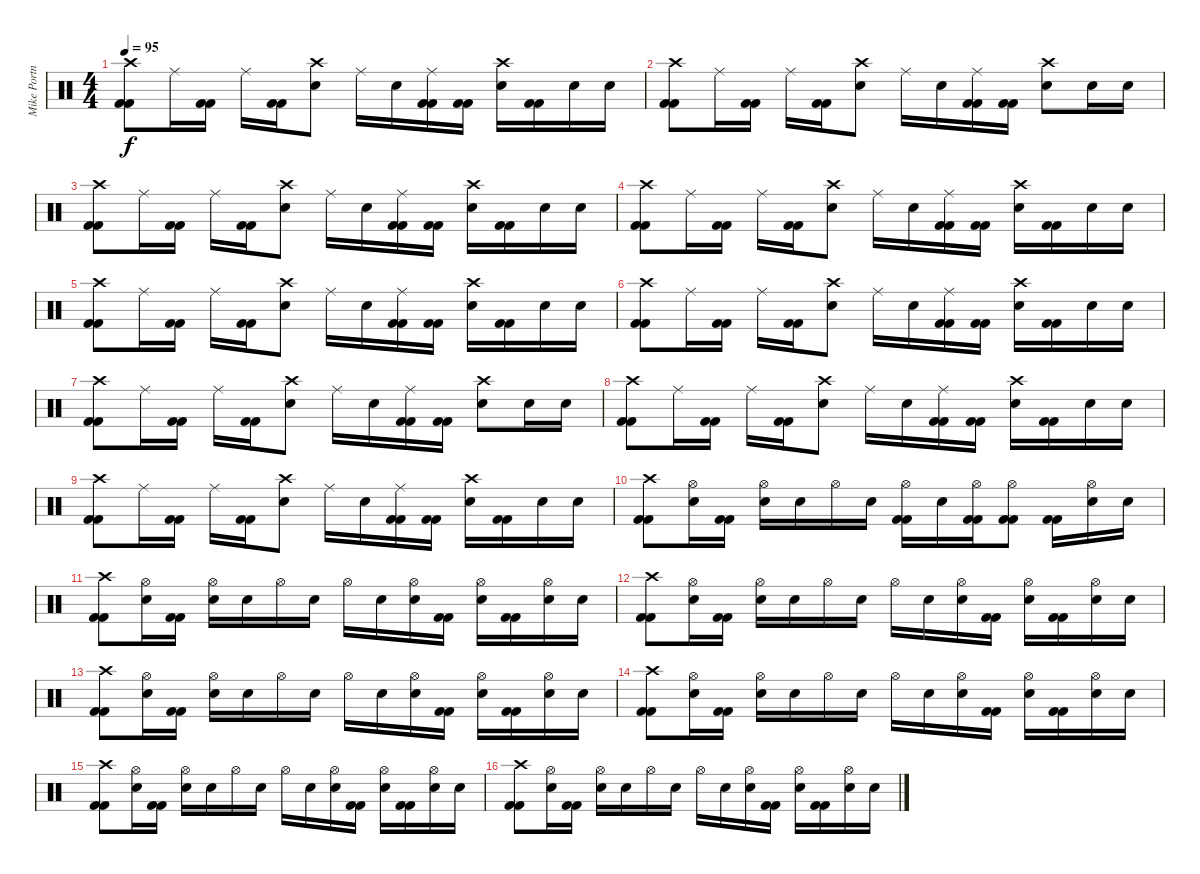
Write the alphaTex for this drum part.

\track ("Mike Portnoy" "Mike Portn") {instrument percussion}
\staff {score}
\articulation defaults
\ts (4 4)
\tempo 95
\clef neutral
\ks c
("Crash high (hit)" "Kick (hit) 2" "Kick (hit) 2").8{dy f} "Ride (middle)".16 ("Kick (hit) 2" "Kick (hit) 2").16 "Ride (middle)".16 ("Kick (hit) 2" "Kick (hit) 2").16 ("Crash high (hit)" "Snare (hit) 2").8 "Ride (middle)".16 "Snare (hit) 2".16 ("Ride (middle)" "Kick (hit) 2" "Kick (hit) 2").16 ("Kick (hit) 2" "Kick (hit) 2").16 ("Crash high (hit)" "Snare (hit) 2").16 ("Kick (hit) 2" "Kick (hit) 2").16 "Snare (hit) 2".16 "Snare (hit) 2".16 |
("Crash high (hit)" "Kick (hit) 2" "Kick (hit) 2").8 "Ride (middle)".16 ("Kick (hit) 2" "Kick (hit) 2").16 "Ride (middle)".16 ("Kick (hit) 2" "Kick (hit) 2").16 ("Crash high (hit)" "Snare (hit) 2").8 "Ride (middle)".16 "Snare (hit) 2".16 ("Ride (middle)" "Kick (hit) 2" "Kick (hit) 2").16 ("Kick (hit) 2" "Kick (hit) 2").16 ("Crash high (hit)" "Snare (hit) 2").8 "Snare (hit) 2".16 "Snare (hit) 2".16 |
("Crash high (hit)" "Kick (hit) 2" "Kick (hit) 2").8 "Ride (middle)".16 ("Kick (hit) 2" "Kick (hit) 2").16 "Ride (middle)".16 ("Kick (hit) 2" "Kick (hit) 2").16 ("Crash high (hit)" "Snare (hit) 2").8 "Ride (middle)".16 "Snare (hit) 2".16 ("Ride (middle)" "Kick (hit) 2" "Kick (hit) 2").16 ("Kick (hit) 2" "Kick (hit) 2").16 ("Crash high (hit)" "Snare (hit) 2").16 ("Kick (hit) 2" "Kick (hit) 2").16 "Snare (hit) 2".16 "Snare (hit) 2".16 |
("Crash high (hit)" "Kick (hit) 2" "Kick (hit) 2").8 "Ride (middle)".16 ("Kick (hit) 2" "Kick (hit) 2").16 "Ride (middle)".16 ("Kick (hit) 2" "Kick (hit) 2").16 ("Crash high (hit)" "Snare (hit) 2").8 "Ride (middle)".16 "Snare (hit) 2".16 ("Ride (middle)" "Kick (hit) 2" "Kick (hit) 2").16 ("Kick (hit) 2" "Kick (hit) 2").16 ("Crash high (hit)" "Snare (hit) 2").16 ("Kick (hit) 2" "Kick (hit) 2").16 "Snare (hit) 2".16 "Snare (hit) 2".16 |
("Crash high (hit)" "Kick (hit) 2" "Kick (hit) 2").8 "Ride (middle)".16 ("Kick (hit) 2" "Kick (hit) 2").16 "Ride (middle)".16 ("Kick (hit) 2" "Kick (hit) 2").16 ("Crash high (hit)" "Snare (hit) 2").8 "Ride (middle)".16 "Snare (hit) 2".16 ("Ride (middle)" "Kick (hit) 2" "Kick (hit) 2").16 ("Kick (hit) 2" "Kick (hit) 2").16 ("Crash high (hit)" "Snare (hit) 2").16 ("Kick (hit) 2" "Kick (hit) 2").16 "Snare (hit) 2".16 "Snare (hit) 2".16 |
("Crash high (hit)" "Kick (hit) 2" "Kick (hit) 2").8 "Ride (middle)".16 ("Kick (hit) 2" "Kick (hit) 2").16 "Ride (middle)".16 ("Kick (hit) 2" "Kick (hit) 2").16 ("Crash high (hit)" "Snare (hit) 2").8 "Ride (middle)".16 "Snare (hit) 2".16 ("Ride (middle)" "Kick (hit) 2" "Kick (hit) 2").16 ("Kick (hit) 2" "Kick (hit) 2").16 ("Crash high (hit)" "Snare (hit) 2").16 ("Kick (hit) 2" "Kick (hit) 2").16 "Snare (hit) 2".16 "Snare (hit) 2".16 |
("Crash high (hit)" "Kick (hit) 2" "Kick (hit) 2").8 "Ride (middle)".16 ("Kick (hit) 2" "Kick (hit) 2").16 "Ride (middle)".16 ("Kick (hit) 2" "Kick (hit) 2").16 ("Crash high (hit)" "Snare (hit) 2").8 "Ride (middle)".16 "Snare (hit) 2".16 ("Ride (middle)" "Kick (hit) 2" "Kick (hit) 2").16 ("Kick (hit) 2" "Kick (hit) 2").16 ("Crash high (hit)" "Snare (hit) 2").8 "Snare (hit) 2".16 "Snare (hit) 2".16 |
("Crash high (hit)" "Kick (hit) 2" "Kick (hit) 2").8 "Ride (middle)".16 ("Kick (hit) 2" "Kick (hit) 2").16 "Ride (middle)".16 ("Kick (hit) 2" "Kick (hit) 2").16 ("Crash high (hit)" "Snare (hit) 2").8 "Ride (middle)".16 "Snare (hit) 2".16 ("Ride (middle)" "Kick (hit) 2" "Kick (hit) 2").16 ("Kick (hit) 2" "Kick (hit) 2").16 ("Crash high (hit)" "Snare (hit) 2").16 ("Kick (hit) 2" "Kick (hit) 2").16 "Snare (hit) 2".16 "Snare (hit) 2".16 |
("Crash high (hit)" "Kick (hit) 2" "Kick (hit) 2").8 "Ride (middle)".16 ("Kick (hit) 2" "Kick (hit) 2").16 "Ride (middle)".16 ("Kick (hit) 2" "Kick (hit) 2").16 ("Crash high (hit)" "Snare (hit) 2").8 "Ride (middle)".16 "Snare (hit) 2".16 ("Ride (middle)" "Kick (hit) 2" "Kick (hit) 2").16 ("Kick (hit) 2" "Kick (hit) 2").16 ("Crash high (hit)" "Snare (hit) 2").16 ("Kick (hit) 2" "Kick (hit) 2").16 "Snare (hit) 2".16 "Snare (hit) 2".16 |
("Crash high (hit)" "Kick (hit) 2" "Kick (hit) 2").8 ("Hi-Hat (open)" "Snare (hit) 2").16 ("Kick (hit) 2" "Kick (hit) 2").16 ("Hi-Hat (open)" "Snare (hit) 2").16 "Snare (hit) 2".16 "Hi-Hat (open)".16 "Snare (hit) 2".16 ("Hi-Hat (open)" "Kick (hit) 2" "Kick (hit) 2").16 "Snare (hit) 2".16 ("Hi-Hat (open)" "Kick (hit) 2" "Kick (hit) 2").16 ("Hi-Hat (open)" "Kick (hit) 2" "Kick (hit) 2").8 ("Kick (hit) 2" "Kick (hit) 2").16 ("Hi-Hat (open)" "Snare (hit) 2").16 "Snare (hit) 2".16 |
("Crash high (hit)" "Kick (hit) 2" "Kick (hit) 2").8 ("Hi-Hat (open)" "Snare (hit) 2").16 ("Kick (hit) 2" "Kick (hit) 2").16 ("Hi-Hat (open)" "Snare (hit) 2").16 "Snare (hit) 2".16 "Hi-Hat (open)".16 "Snare (hit) 2".16 "Hi-Hat (open)".16 "Snare (hit) 2".16 ("Hi-Hat (open)" "Snare (hit) 2").16 ("Kick (hit) 2" "Kick (hit) 2").16 ("Hi-Hat (open)" "Snare (hit) 2").16 ("Kick (hit) 2" "Kick (hit) 2").16 ("Hi-Hat (open)" "Snare (hit) 2").16 "Snare (hit) 2".16 |
("Crash high (hit)" "Kick (hit) 2" "Kick (hit) 2").8 ("Hi-Hat (open)" "Snare (hit) 2").16 ("Kick (hit) 2" "Kick (hit) 2").16 ("Hi-Hat (open)" "Snare (hit) 2").16 "Snare (hit) 2".16 "Hi-Hat (open)".16 "Snare (hit) 2".16 "Hi-Hat (open)".16 "Snare (hit) 2".16 ("Hi-Hat (open)" "Snare (hit) 2").16 ("Kick (hit) 2" "Kick (hit) 2").16 ("Hi-Hat (open)" "Snare (hit) 2").16 ("Kick (hit) 2" "Kick (hit) 2").16 ("Hi-Hat (open)" "Snare (hit) 2").16 "Snare (hit) 2".16 |
("Crash high (hit)" "Kick (hit) 2" "Kick (hit) 2").8 ("Hi-Hat (open)" "Snare (hit) 2").16 ("Kick (hit) 2" "Kick (hit) 2").16 ("Hi-Hat (open)" "Snare (hit) 2").16 "Snare (hit) 2".16 "Hi-Hat (open)".16 "Snare (hit) 2".16 "Hi-Hat (open)".16 "Snare (hit) 2".16 ("Hi-Hat (open)" "Snare (hit) 2").16 ("Kick (hit) 2" "Kick (hit) 2").16 ("Hi-Hat (open)" "Snare (hit) 2").16 ("Kick (hit) 2" "Kick (hit) 2").16 ("Hi-Hat (open)" "Snare (hit) 2").16 "Snare (hit) 2".16 |
("Crash high (hit)" "Kick (hit) 2" "Kick (hit) 2").8 ("Hi-Hat (open)" "Snare (hit) 2").16 ("Kick (hit) 2" "Kick (hit) 2").16 ("Hi-Hat (open)" "Snare (hit) 2").16 "Snare (hit) 2".16 "Hi-Hat (open)".16 "Snare (hit) 2".16 "Hi-Hat (open)".16 "Snare (hit) 2".16 ("Hi-Hat (open)" "Snare (hit) 2").16 ("Kick (hit) 2" "Kick (hit) 2").16 ("Hi-Hat (open)" "Snare (hit) 2").16 ("Kick (hit) 2" "Kick (hit) 2").16 ("Hi-Hat (open)" "Snare (hit) 2").16 "Snare (hit) 2".16 |
("Crash high (hit)" "Kick (hit) 2" "Kick (hit) 2").8 ("Hi-Hat (open)" "Snare (hit) 2").16 ("Kick (hit) 2" "Kick (hit) 2").16 ("Hi-Hat (open)" "Snare (hit) 2").16 "Snare (hit) 2".16 "Hi-Hat (open)".16 "Snare (hit) 2".16 "Hi-Hat (open)".16 "Snare (hit) 2".16 ("Hi-Hat (open)" "Snare (hit) 2").16 ("Kick (hit) 2" "Kick (hit) 2").16 ("Hi-Hat (open)" "Snare (hit) 2").16 ("Kick (hit) 2" "Kick (hit) 2").16 ("Hi-Hat (open)" "Snare (hit) 2").16 "Snare (hit) 2".16 |
("Crash high (hit)" "Kick (hit) 2" "Kick (hit) 2").8 ("Hi-Hat (open)" "Snare (hit) 2").16 ("Kick (hit) 2" "Kick (hit) 2").16 ("Hi-Hat (open)" "Snare (hit) 2").16 "Snare (hit) 2".16 "Hi-Hat (open)".16 "Snare (hit) 2".16 "Hi-Hat (open)".16 "Snare (hit) 2".16 ("Hi-Hat (open)" "Snare (hit) 2").16 ("Kick (hit) 2" "Kick (hit) 2").16 ("Hi-Hat (open)" "Snare (hit) 2").16 ("Kick (hit) 2" "Kick (hit) 2").16 ("Hi-Hat (open)" "Snare (hit) 2").16 "Snare (hit) 2".16
